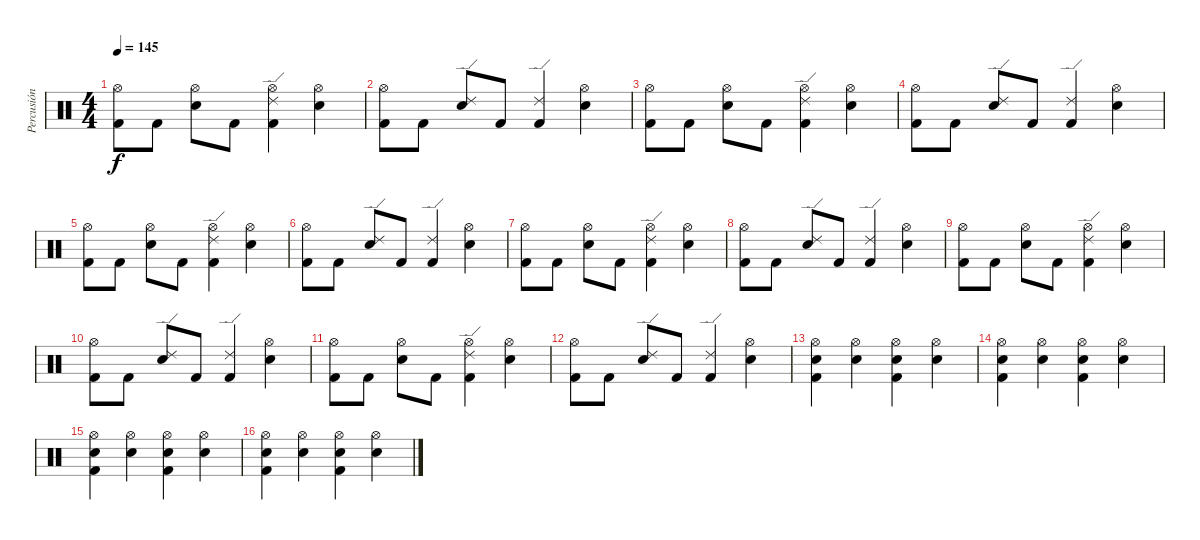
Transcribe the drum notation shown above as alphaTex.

\track ("Percusión" "Percusión") {instrument percussion}
\staff {score}
\articulation defaults
\ts (4 4)
\tempo 145
\clef neutral
\ks c
("Hi-Hat (open)" "Kick (hit) 2").8{dy f} "Kick (hit) 2".8 ("Hi-Hat (open)" "Snare (hit) 2").8 "Kick (hit) 2".8 ("Hi-Hat (open)" "Ride (edge) 2" "Kick (hit) 2").4 ("Hi-Hat (open)" "Snare (hit) 2").4 |
("Hi-Hat (open)" "Kick (hit) 2").8 "Kick (hit) 2".8 ("Ride (edge) 2" "Snare (hit) 2").8 "Kick (hit) 2".8 ("Ride (edge) 2" "Kick (hit) 2").4 ("Hi-Hat (open)" "Snare (hit) 2").4 |
("Hi-Hat (open)" "Kick (hit) 2").8 "Kick (hit) 2".8 ("Hi-Hat (open)" "Snare (hit) 2").8 "Kick (hit) 2".8 ("Hi-Hat (open)" "Ride (edge) 2" "Kick (hit) 2").4 ("Hi-Hat (open)" "Snare (hit) 2").4 |
("Hi-Hat (open)" "Kick (hit) 2").8 "Kick (hit) 2".8 ("Ride (edge) 2" "Snare (hit) 2").8 "Kick (hit) 2".8 ("Ride (edge) 2" "Kick (hit) 2").4 ("Hi-Hat (open)" "Snare (hit) 2").4 |
("Hi-Hat (open)" "Kick (hit) 2").8 "Kick (hit) 2".8 ("Hi-Hat (open)" "Snare (hit) 2").8 "Kick (hit) 2".8 ("Hi-Hat (open)" "Ride (edge) 2" "Kick (hit) 2").4 ("Hi-Hat (open)" "Snare (hit) 2").4 |
("Hi-Hat (open)" "Kick (hit) 2").8 "Kick (hit) 2".8 ("Ride (edge) 2" "Snare (hit) 2").8 "Kick (hit) 2".8 ("Ride (edge) 2" "Kick (hit) 2").4 ("Hi-Hat (open)" "Snare (hit) 2").4 |
("Hi-Hat (open)" "Kick (hit) 2").8 "Kick (hit) 2".8 ("Hi-Hat (open)" "Snare (hit) 2").8 "Kick (hit) 2".8 ("Hi-Hat (open)" "Ride (edge) 2" "Kick (hit) 2").4 ("Hi-Hat (open)" "Snare (hit) 2").4 |
("Hi-Hat (open)" "Kick (hit) 2").8 "Kick (hit) 2".8 ("Ride (edge) 2" "Snare (hit) 2").8 "Kick (hit) 2".8 ("Ride (edge) 2" "Kick (hit) 2").4 ("Hi-Hat (open)" "Snare (hit) 2").4 |
("Hi-Hat (open)" "Kick (hit) 2").8 "Kick (hit) 2".8 ("Hi-Hat (open)" "Snare (hit) 2").8 "Kick (hit) 2".8 ("Hi-Hat (open)" "Ride (edge) 2" "Kick (hit) 2").4 ("Hi-Hat (open)" "Snare (hit) 2").4 |
("Hi-Hat (open)" "Kick (hit) 2").8 "Kick (hit) 2".8 ("Ride (edge) 2" "Snare (hit) 2").8 "Kick (hit) 2".8 ("Ride (edge) 2" "Kick (hit) 2").4 ("Hi-Hat (open)" "Snare (hit) 2").4 |
("Hi-Hat (open)" "Kick (hit) 2").8 "Kick (hit) 2".8 ("Hi-Hat (open)" "Snare (hit) 2").8 "Kick (hit) 2".8 ("Hi-Hat (open)" "Ride (edge) 2" "Kick (hit) 2").4 ("Hi-Hat (open)" "Snare (hit) 2").4 |
("Hi-Hat (open)" "Kick (hit) 2").8 "Kick (hit) 2".8 ("Ride (edge) 2" "Snare (hit) 2").8 "Kick (hit) 2".8 ("Ride (edge) 2" "Kick (hit) 2").4 ("Hi-Hat (open)" "Snare (hit) 2").4 |
("Hi-Hat (open)" "Snare (hit) 2" "Kick (hit) 2").4 ("Hi-Hat (open)" "Snare (hit) 2").4 ("Hi-Hat (open)" "Snare (hit) 2" "Kick (hit) 2").4 ("Hi-Hat (open)" "Snare (hit) 2").4 |
("Hi-Hat (open)" "Snare (hit) 2" "Kick (hit) 2").4 ("Hi-Hat (open)" "Snare (hit) 2").4 ("Hi-Hat (open)" "Snare (hit) 2" "Kick (hit) 2").4 ("Hi-Hat (open)" "Snare (hit) 2").4 |
("Hi-Hat (open)" "Snare (hit) 2" "Kick (hit) 2").4 ("Hi-Hat (open)" "Snare (hit) 2").4 ("Hi-Hat (open)" "Snare (hit) 2" "Kick (hit) 2").4 ("Hi-Hat (open)" "Snare (hit) 2").4 |
("Hi-Hat (open)" "Snare (hit) 2" "Kick (hit) 2").4 ("Hi-Hat (open)" "Snare (hit) 2").4 ("Hi-Hat (open)" "Snare (hit) 2" "Kick (hit) 2").4 ("Hi-Hat (open)" "Snare (hit) 2").4
